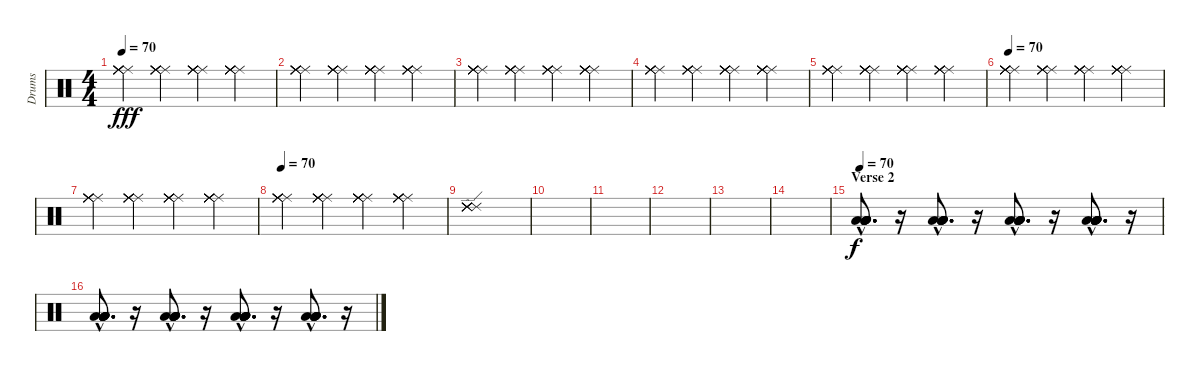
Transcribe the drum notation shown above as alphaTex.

\track ("Drums" "Drums") {instrument percussion}
\staff {score}
\articulation defaults
\ts (4 4)
\tempo 70
\clef neutral
\ks c
("Ride (middle)" "Ride (middle)" "Ride (middle)" "Ride (middle)" "Ride (middle)" "Ride (middle)").4{dy fff} ("Ride (middle)" "Ride (middle)" "Ride (middle)" "Ride (middle)" "Ride (middle)" "Ride (middle)").4 ("Ride (middle)" "Ride (middle)" "Ride (middle)" "Ride (middle)" "Ride (middle)" "Ride (middle)").4 ("Ride (middle)" "Ride (middle)" "Ride (middle)" "Ride (middle)" "Ride (middle)" "Ride (middle)").4 |
("Ride (middle)" "Ride (middle)" "Ride (middle)" "Ride (middle)" "Ride (middle)" "Ride (middle)").4 ("Ride (middle)" "Ride (middle)" "Ride (middle)" "Ride (middle)" "Ride (middle)" "Ride (middle)").4 ("Ride (middle)" "Ride (middle)" "Ride (middle)" "Ride (middle)" "Ride (middle)" "Ride (middle)").4 ("Ride (middle)" "Ride (middle)" "Ride (middle)" "Ride (middle)" "Ride (middle)" "Ride (middle)").4 |
("Ride (middle)" "Ride (middle)" "Ride (middle)" "Ride (middle)" "Ride (middle)" "Ride (middle)").4 ("Ride (middle)" "Ride (middle)" "Ride (middle)" "Ride (middle)" "Ride (middle)" "Ride (middle)").4 ("Ride (middle)" "Ride (middle)" "Ride (middle)" "Ride (middle)" "Ride (middle)" "Ride (middle)").4 ("Ride (middle)" "Ride (middle)" "Ride (middle)" "Ride (middle)" "Ride (middle)" "Ride (middle)").4 |
("Ride (middle)" "Ride (middle)" "Ride (middle)" "Ride (middle)" "Ride (middle)" "Ride (middle)").4 ("Ride (middle)" "Ride (middle)" "Ride (middle)" "Ride (middle)" "Ride (middle)" "Ride (middle)").4 ("Ride (middle)" "Ride (middle)" "Ride (middle)" "Ride (middle)" "Ride (middle)" "Ride (middle)").4 ("Ride (middle)" "Ride (middle)" "Ride (middle)" "Ride (middle)" "Ride (middle)" "Ride (middle)").4 |
("Ride (middle)" "Ride (middle)" "Ride (middle)" "Ride (middle)" "Ride (middle)" "Ride (middle)").4 ("Ride (middle)" "Ride (middle)" "Ride (middle)" "Ride (middle)" "Ride (middle)" "Ride (middle)").4 ("Ride (middle)" "Ride (middle)" "Ride (middle)" "Ride (middle)" "Ride (middle)" "Ride (middle)").4 ("Ride (middle)" "Ride (middle)" "Ride (middle)" "Ride (middle)" "Ride (middle)" "Ride (middle)").4 |
\tempo 70
("Ride (middle)" "Ride (middle)" "Ride (middle)" "Ride (middle)" "Ride (middle)" "Ride (middle)").4 ("Ride (middle)" "Ride (middle)" "Ride (middle)" "Ride (middle)" "Ride (middle)" "Ride (middle)").4 ("Ride (middle)" "Ride (middle)" "Ride (middle)" "Ride (middle)" "Ride (middle)" "Ride (middle)").4 ("Ride (middle)" "Ride (middle)" "Ride (middle)" "Ride (middle)" "Ride (middle)" "Ride (middle)").4 |
("Ride (middle)" "Ride (middle)" "Ride (middle)" "Ride (middle)" "Ride (middle)" "Ride (middle)").4 ("Ride (middle)" "Ride (middle)" "Ride (middle)" "Ride (middle)" "Ride (middle)" "Ride (middle)").4 ("Ride (middle)" "Ride (middle)" "Ride (middle)" "Ride (middle)" "Ride (middle)" "Ride (middle)").4 ("Ride (middle)" "Ride (middle)" "Ride (middle)" "Ride (middle)" "Ride (middle)" "Ride (middle)").4 |
\tempo 70
("Ride (middle)" "Ride (middle)" "Ride (middle)" "Ride (middle)" "Ride (middle)" "Ride (middle)").4 ("Ride (middle)" "Ride (middle)" "Ride (middle)" "Ride (middle)" "Ride (middle)" "Ride (middle)").4 ("Ride (middle)" "Ride (middle)" "Ride (middle)" "Ride (middle)" "Ride (middle)" "Ride (middle)").4 ("Ride (middle)" "Ride (middle)" "Ride (middle)" "Ride (middle)" "Ride (middle)" "Ride (middle)").4 |
("Ride (edge) 2" "Ride (edge) 2" "Ride (edge) 2" "Ride (edge) 2" "Ride (edge) 2" "Ride (edge) 2").1 |
|
|
|
|
|
\section ("" "Verse 2")
\tempo 70
("Low Floor Tom (hit)"{hac} "Low Floor Tom (hit)"{hac} "Low Floor Tom (hit)"{hac} "Low Floor Tom (hit)"{hac} "Low Floor Tom (hit)"{hac} "Low Floor Tom (hit)"{hac}).8{d dy f} r.16 ("Low Floor Tom (hit)"{hac} "Low Floor Tom (hit)"{hac} "Low Floor Tom (hit)"{hac} "Low Floor Tom (hit)"{hac} "Low Floor Tom (hit)"{hac} "Low Floor Tom (hit)"{hac}).8{d} r.16 ("Low Floor Tom (hit)"{hac} "Low Floor Tom (hit)"{hac} "Low Floor Tom (hit)"{hac} "Low Floor Tom (hit)"{hac} "Low Floor Tom (hit)"{hac} "Low Floor Tom (hit)"{hac}).8{d} r.16 ("Low Floor Tom (hit)"{hac} "Low Floor Tom (hit)"{hac} "Low Floor Tom (hit)"{hac} "Low Floor Tom (hit)"{hac} "Low Floor Tom (hit)"{hac} "Low Floor Tom (hit)"{hac}).8{d} r.16 |
("Low Floor Tom (hit)"{hac} "Low Floor Tom (hit)"{hac} "Low Floor Tom (hit)"{hac} "Low Floor Tom (hit)"{hac} "Low Floor Tom (hit)"{hac} "Low Floor Tom (hit)"{hac}).8{d} r.16 ("Low Floor Tom (hit)"{hac} "Low Floor Tom (hit)"{hac} "Low Floor Tom (hit)"{hac} "Low Floor Tom (hit)"{hac} "Low Floor Tom (hit)"{hac} "Low Floor Tom (hit)"{hac}).8{d} r.16 ("Low Floor Tom (hit)"{hac} "Low Floor Tom (hit)"{hac} "Low Floor Tom (hit)"{hac} "Low Floor Tom (hit)"{hac} "Low Floor Tom (hit)"{hac} "Low Floor Tom (hit)"{hac}).8{d} r.16 ("Low Floor Tom (hit)"{hac} "Low Floor Tom (hit)"{hac} "Low Floor Tom (hit)"{hac} "Low Floor Tom (hit)"{hac} "Low Floor Tom (hit)"{hac} "Low Floor Tom (hit)"{hac}).8{d} r.16
